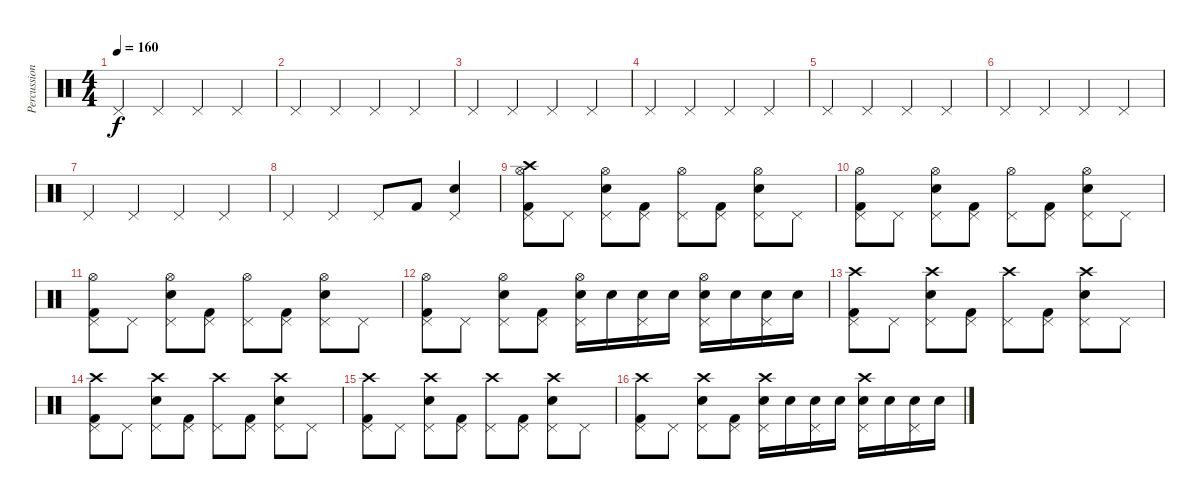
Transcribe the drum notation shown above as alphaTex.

\track ("Percussion" "Percussion") {instrument percussion}
\staff {score}
\articulation defaults
\ts (4 4)
\tempo 160
\clef neutral
\ks c "Pedal Hi-Hat (hit)".4{dy f} "Pedal Hi-Hat (hit)".4 "Pedal Hi-Hat (hit)".4 "Pedal Hi-Hat (hit)".4
|
"Pedal Hi-Hat (hit)".4 "Pedal Hi-Hat (hit)".4 "Pedal Hi-Hat (hit)".4 "Pedal Hi-Hat (hit)".4 |
"Pedal Hi-Hat (hit)".4 "Pedal Hi-Hat (hit)".4 "Pedal Hi-Hat (hit)".4 "Pedal Hi-Hat (hit)".4 |
"Pedal Hi-Hat (hit)".4 "Pedal Hi-Hat (hit)".4 "Pedal Hi-Hat (hit)".4 "Pedal Hi-Hat (hit)".4 |
"Pedal Hi-Hat (hit)".4 "Pedal Hi-Hat (hit)".4 "Pedal Hi-Hat (hit)".4 "Pedal Hi-Hat (hit)".4 |
"Pedal Hi-Hat (hit)".4 "Pedal Hi-Hat (hit)".4 "Pedal Hi-Hat (hit)".4 "Pedal Hi-Hat (hit)".4 |
"Pedal Hi-Hat (hit)".4 "Pedal Hi-Hat (hit)".4 "Pedal Hi-Hat (hit)".4 "Pedal Hi-Hat (hit)".4 |
"Pedal Hi-Hat (hit)".4 "Pedal Hi-Hat (hit)".4 "Pedal Hi-Hat (hit)".8 "Kick (hit) 2".8 ("Pedal Hi-Hat (hit)" "Electric Snare (hit)").4 |
("Pedal Hi-Hat (hit)" "Kick (hit) 2" "Crash high (hit)" "Hi-Hat (open)").8 "Pedal Hi-Hat (hit)".8 ("Pedal Hi-Hat (hit)" "Electric Snare (hit)" "Hi-Hat (open)").8 ("Pedal Hi-Hat (hit)" "Kick (hit) 2").8 ("Pedal Hi-Hat (hit)" "Hi-Hat (open)").8 ("Pedal Hi-Hat (hit)" "Kick (hit) 2").8 ("Pedal Hi-Hat (hit)" "Electric Snare (hit)" "Hi-Hat (open)").8 "Pedal Hi-Hat (hit)".8 |
("Pedal Hi-Hat (hit)" "Kick (hit) 2" "Hi-Hat (open)").8 "Pedal Hi-Hat (hit)".8 ("Pedal Hi-Hat (hit)" "Electric Snare (hit)" "Hi-Hat (open)").8 ("Pedal Hi-Hat (hit)" "Kick (hit) 2").8 ("Pedal Hi-Hat (hit)" "Hi-Hat (open)").8 ("Pedal Hi-Hat (hit)" "Kick (hit) 2").8 ("Pedal Hi-Hat (hit)" "Electric Snare (hit)" "Hi-Hat (open)").8 "Pedal Hi-Hat (hit)".8 |
("Pedal Hi-Hat (hit)" "Kick (hit) 2" "Hi-Hat (open)").8 "Pedal Hi-Hat (hit)".8 ("Pedal Hi-Hat (hit)" "Electric Snare (hit)" "Hi-Hat (open)").8 ("Pedal Hi-Hat (hit)" "Kick (hit) 2").8 ("Pedal Hi-Hat (hit)" "Hi-Hat (open)").8 ("Pedal Hi-Hat (hit)" "Kick (hit) 2").8 ("Pedal Hi-Hat (hit)" "Electric Snare (hit)" "Hi-Hat (open)").8 "Pedal Hi-Hat (hit)".8 |
("Pedal Hi-Hat (hit)" "Kick (hit) 2" "Hi-Hat (open)").8 "Pedal Hi-Hat (hit)".8 ("Pedal Hi-Hat (hit)" "Electric Snare (hit)" "Hi-Hat (open)").8 ("Pedal Hi-Hat (hit)" "Kick (hit) 2").8 ("Pedal Hi-Hat (hit)" "Electric Snare (hit)" "Hi-Hat (open)").16 "Electric Snare (hit)".16 ("Pedal Hi-Hat (hit)" "Electric Snare (hit)").16 "Electric Snare (hit)".16 ("Pedal Hi-Hat (hit)" "Electric Snare (hit)" "Hi-Hat (open)").16 "Electric Snare (hit)".16 ("Pedal Hi-Hat (hit)" "Electric Snare (hit)").16 "Electric Snare (hit)".16 |
("Pedal Hi-Hat (hit)" "Kick (hit) 2" "Crash high (hit)").8 "Pedal Hi-Hat (hit)".8 ("Pedal Hi-Hat (hit)" "Electric Snare (hit)" "Crash high (hit)").8 ("Pedal Hi-Hat (hit)" "Kick (hit) 2").8 ("Pedal Hi-Hat (hit)" "Crash high (hit)").8 ("Pedal Hi-Hat (hit)" "Kick (hit) 2").8 ("Pedal Hi-Hat (hit)" "Electric Snare (hit)" "Crash high (hit)").8 "Pedal Hi-Hat (hit)".8 |
("Pedal Hi-Hat (hit)" "Kick (hit) 2" "Crash high (hit)").8 "Pedal Hi-Hat (hit)".8 ("Pedal Hi-Hat (hit)" "Electric Snare (hit)" "Crash high (hit)").8 ("Pedal Hi-Hat (hit)" "Kick (hit) 2").8 ("Pedal Hi-Hat (hit)" "Crash high (hit)").8 ("Pedal Hi-Hat (hit)" "Kick (hit) 2").8 ("Pedal Hi-Hat (hit)" "Electric Snare (hit)" "Crash high (hit)").8 "Pedal Hi-Hat (hit)".8 |
("Pedal Hi-Hat (hit)" "Kick (hit) 2" "Crash high (hit)").8 "Pedal Hi-Hat (hit)".8 ("Pedal Hi-Hat (hit)" "Electric Snare (hit)" "Crash high (hit)").8 ("Pedal Hi-Hat (hit)" "Kick (hit) 2").8 ("Pedal Hi-Hat (hit)" "Crash high (hit)").8 ("Pedal Hi-Hat (hit)" "Kick (hit) 2").8 ("Pedal Hi-Hat (hit)" "Electric Snare (hit)" "Crash high (hit)").8 "Pedal Hi-Hat (hit)".8 |
("Pedal Hi-Hat (hit)" "Kick (hit) 2" "Crash high (hit)").8 "Pedal Hi-Hat (hit)".8 ("Pedal Hi-Hat (hit)" "Electric Snare (hit)" "Crash high (hit)").8 ("Pedal Hi-Hat (hit)" "Kick (hit) 2").8 ("Pedal Hi-Hat (hit)" "Electric Snare (hit)" "Crash high (hit)").16 "Electric Snare (hit)".16 ("Pedal Hi-Hat (hit)" "Electric Snare (hit)").16 "Electric Snare (hit)".16 ("Pedal Hi-Hat (hit)" "Electric Snare (hit)" "Crash high (hit)").16 "Electric Snare (hit)".16 ("Pedal Hi-Hat (hit)" "Electric Snare (hit)").16 "Electric Snare (hit)".16
